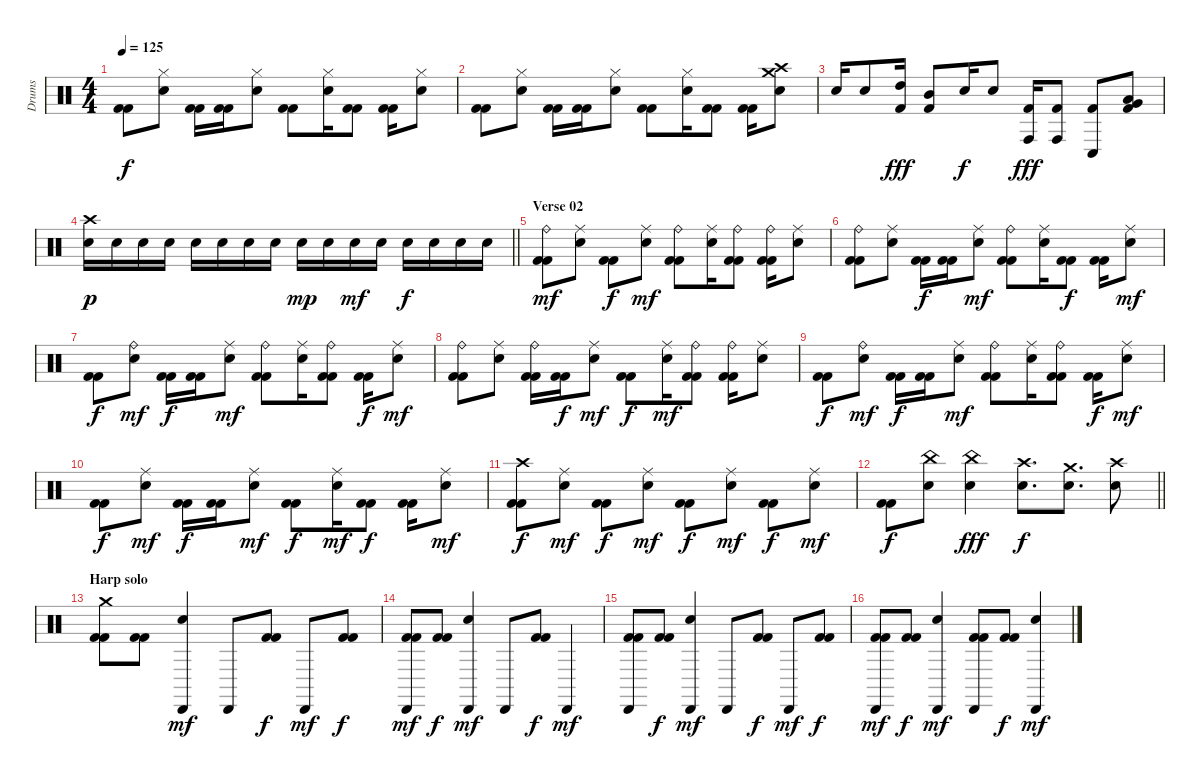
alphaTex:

\track ("Drums" "Drums") {instrument percussion}
\staff {score}
\articulation defaults
\ts (4 4)
\tempo 125
\clef neutral
\ks c
("Kick (hit) 2" "Kick (hit) 2").8{dy f} ("Hi-Hat (closed)" "Electric Snare (hit)").8 ("Kick (hit) 2" "Kick (hit) 2").16 ("Kick (hit) 2" "Kick (hit) 2").16 ("Hi-Hat (closed)" "Electric Snare (hit)").8 ("Kick (hit) 2" "Kick (hit) 2").8 ("Hi-Hat (closed)" "Electric Snare (hit)").16 ("Kick (hit) 2" "Kick (hit) 2").8 ("Kick (hit) 2" "Kick (hit) 2").16 ("Hi-Hat (closed)" "Electric Snare (hit)").8 |
("Kick (hit) 2" "Kick (hit) 2").8 ("Hi-Hat (closed)" "Electric Snare (hit)").8 ("Kick (hit) 2" "Kick (hit) 2").16 ("Kick (hit) 2" "Kick (hit) 2").16 ("Hi-Hat (closed)" "Electric Snare (hit)").8 ("Kick (hit) 2" "Kick (hit) 2").8 ("Hi-Hat (closed)" "Electric Snare (hit)").16 ("Kick (hit) 2" "Kick (hit) 2").8 ("Kick (hit) 2" "Kick (hit) 2").16 ("Crash medium (hit)" "Crash high (hit)" "Electric Snare (hit)").8 |
"Electric Snare (hit)".16 "Electric Snare (hit)".8 ("High Tom (hit)" "Kick (hit) 2").16{dy fff} ("Mid Tom (hit)" "Kick (hit) 2").8 "Electric Snare (hit)".16{dy f} "Electric Snare (hit)".8 ("Conga high (hit)" "Kick (hit) 2").16{dy fff} ("Conga high (hit)" "Kick (hit) 2").8 ("Conga low (hit)" "Kick (hit) 2").8 ("Low Tom (hit)" "Very Low Tom (hit)" "Kick (hit) 2").8 |
\barLineRight lightlight
("Crash high (hit)" "Electric Snare (hit)").16{dy p} "Electric Snare (hit)".16 "Electric Snare (hit)".16 "Electric Snare (hit)".16 "Electric Snare (hit)".16 "Electric Snare (hit)".16 "Electric Snare (hit)".16 "Electric Snare (hit)".16 "Electric Snare (hit)".16{dy mp} "Electric Snare (hit)".16 "Electric Snare (hit)".16{dy mf} "Electric Snare (hit)".16 "Electric Snare (hit)".16{dy f} "Electric Snare (hit)".16 "Electric Snare (hit)".16 "Electric Snare (hit)".16 |
\section ("" "Verse 02")
("Ride (bell)" "Kick (hit) 2" "Kick (hit) 2").8{dy mf} ("Ride (middle)" "Electric Snare (hit)").8 ("Kick (hit) 2" "Kick (hit) 2").8{dy f} ("Ride (middle)" "Electric Snare (hit)").8{dy mf} ("Ride (bell)" "Kick (hit) 2" "Kick (hit) 2").8 ("Ride (middle)" "Electric Snare (hit)").16 ("Ride (bell)" "Kick (hit) 2" "Kick (hit) 2").8 ("Ride (bell)" "Kick (hit) 2" "Kick (hit) 2").16 ("Ride (middle)" "Electric Snare (hit)").8 |
("Ride (bell)" "Kick (hit) 2" "Kick (hit) 2").8 ("Ride (middle)" "Electric Snare (hit)").8 ("Kick (hit) 2" "Kick (hit) 2").16{dy f} ("Kick (hit) 2" "Kick (hit) 2").16 ("Ride (middle)" "Electric Snare (hit)").8{dy mf} ("Ride (bell)" "Kick (hit) 2" "Kick (hit) 2").8 ("Ride (middle)" "Electric Snare (hit)").16 ("Kick (hit) 2" "Kick (hit) 2").8{dy f} ("Kick (hit) 2" "Kick (hit) 2").16 ("Ride (middle)" "Electric Snare (hit)").8{dy mf} |
("Kick (hit) 2" "Kick (hit) 2").8{dy f} ("Ride (bell)" "Electric Snare (hit)").8{dy mf} ("Kick (hit) 2" "Kick (hit) 2").16{dy f} ("Kick (hit) 2" "Kick (hit) 2").16 ("Ride (middle)" "Electric Snare (hit)").8{dy mf} ("Ride (bell)" "Kick (hit) 2" "Kick (hit) 2").8 ("Ride (middle)" "Electric Snare (hit)").16 ("Ride (bell)" "Kick (hit) 2" "Kick (hit) 2").8 ("Kick (hit) 2" "Kick (hit) 2").16{dy f} ("Ride (middle)" "Electric Snare (hit)").8{dy mf} |
("Ride (bell)" "Kick (hit) 2" "Kick (hit) 2").8 ("Ride (middle)" "Electric Snare (hit)").8 ("Ride (bell)" "Kick (hit) 2" "Kick (hit) 2").16 ("Kick (hit) 2" "Kick (hit) 2").16{dy f} ("Ride (middle)" "Electric Snare (hit)").8{dy mf} ("Kick (hit) 2" "Kick (hit) 2").8{dy f} ("Ride (middle)" "Electric Snare (hit)").16{dy mf} ("Ride (bell)" "Kick (hit) 2" "Kick (hit) 2").8 ("Ride (bell)" "Kick (hit) 2" "Kick (hit) 2").16 ("Ride (middle)" "Electric Snare (hit)").8 |
("Kick (hit) 2" "Kick (hit) 2").8{dy f} ("Ride (bell)" "Electric Snare (hit)").8{dy mf} ("Kick (hit) 2" "Kick (hit) 2").16{dy f} ("Kick (hit) 2" "Kick (hit) 2").16 ("Ride (middle)" "Electric Snare (hit)").8{dy mf} ("Ride (bell)" "Kick (hit) 2" "Kick (hit) 2").8 ("Ride (middle)" "Electric Snare (hit)").16 ("Ride (bell)" "Kick (hit) 2" "Kick (hit) 2").8 ("Kick (hit) 2" "Kick (hit) 2").16{dy f} ("Ride (middle)" "Electric Snare (hit)").8{dy mf} |
("Kick (hit) 2" "Kick (hit) 2").8{dy f} ("Ride (middle)" "Electric Snare (hit)").8{dy mf} ("Kick (hit) 2" "Kick (hit) 2").16{dy f} ("Kick (hit) 2" "Kick (hit) 2").16 ("Ride (middle)" "Electric Snare (hit)").8{dy mf} ("Kick (hit) 2" "Kick (hit) 2").8{dy f} ("Ride (middle)" "Electric Snare (hit)").16{dy mf} ("Kick (hit) 2" "Kick (hit) 2").8{dy f} ("Kick (hit) 2" "Kick (hit) 2").16 ("Ride (middle)" "Electric Snare (hit)").8{dy mf} |
("Crash high (hit)" "Kick (hit) 2" "Kick (hit) 2").8{dy f} ("Ride (middle)" "Electric Snare (hit)").8{dy mf} ("Kick (hit) 2" "Kick (hit) 2").8{dy f} ("Ride (middle)" "Electric Snare (hit)").8{dy mf} ("Kick (hit) 2" "Kick (hit) 2").8{dy f} ("Ride (middle)" "Electric Snare (hit)").8{dy mf} ("Kick (hit) 2" "Kick (hit) 2").8{dy f} ("Ride (middle)" "Electric Snare (hit)").8{dy mf} |
\barLineRight lightlight
("Kick (hit) 2" "Kick (hit) 2").8{dy f} ("China (hit)" "Electric Snare (hit)").8 ("China (hit)" "Electric Snare (hit)").4{dy fff} ("Crash high (hit)" "Electric Snare (hit)").8{d dy f} ("Crash medium (hit)" "Electric Snare (hit)").8{d} ("Crash high (hit)" "Electric Snare (hit)").8 |
\section ("" "Harp solo")
("Crash medium (hit)" "Kick (hit) 2" "Kick (hit) 2").8 ("Kick (hit) 2" "Kick (hit) 2").8 ("Cabasa (hit)" "Electric Snare (hit)").4{dy mf} "Cabasa (hit)".8 ("Kick (hit) 2" "Kick (hit) 2").8{dy f} "Cabasa (hit)".8{dy mf} ("Kick (hit) 2" "Kick (hit) 2").8{dy f} |
("Cabasa (hit)" "Kick (hit) 2" "Kick (hit) 2").8{dy mf} ("Kick (hit) 2" "Kick (hit) 2").8{dy f} ("Cabasa (hit)" "Electric Snare (hit)").4{dy mf} "Cabasa (hit)".8 ("Kick (hit) 2" "Kick (hit) 2").8{dy f} "Cabasa (hit)".4{dy mf} |
("Cabasa (hit)" "Kick (hit) 2" "Kick (hit) 2").8 ("Kick (hit) 2" "Kick (hit) 2").8{dy f} ("Cabasa (hit)" "Electric Snare (hit)").4{dy mf} "Cabasa (hit)".8 ("Kick (hit) 2" "Kick (hit) 2").8{dy f} "Cabasa (hit)".8{dy mf} ("Kick (hit) 2" "Kick (hit) 2").8{dy f} |
("Cabasa (hit)" "Kick (hit) 2" "Kick (hit) 2").8{dy mf} ("Kick (hit) 2" "Kick (hit) 2").8{dy f} ("Cabasa (hit)" "Electric Snare (hit)").4{dy mf} ("Cabasa (hit)" "Kick (hit) 2" "Kick (hit) 2").8 ("Kick (hit) 2" "Kick (hit) 2").8{dy f} ("Cabasa (hit)" "Electric Snare (hit)").4{dy mf}
